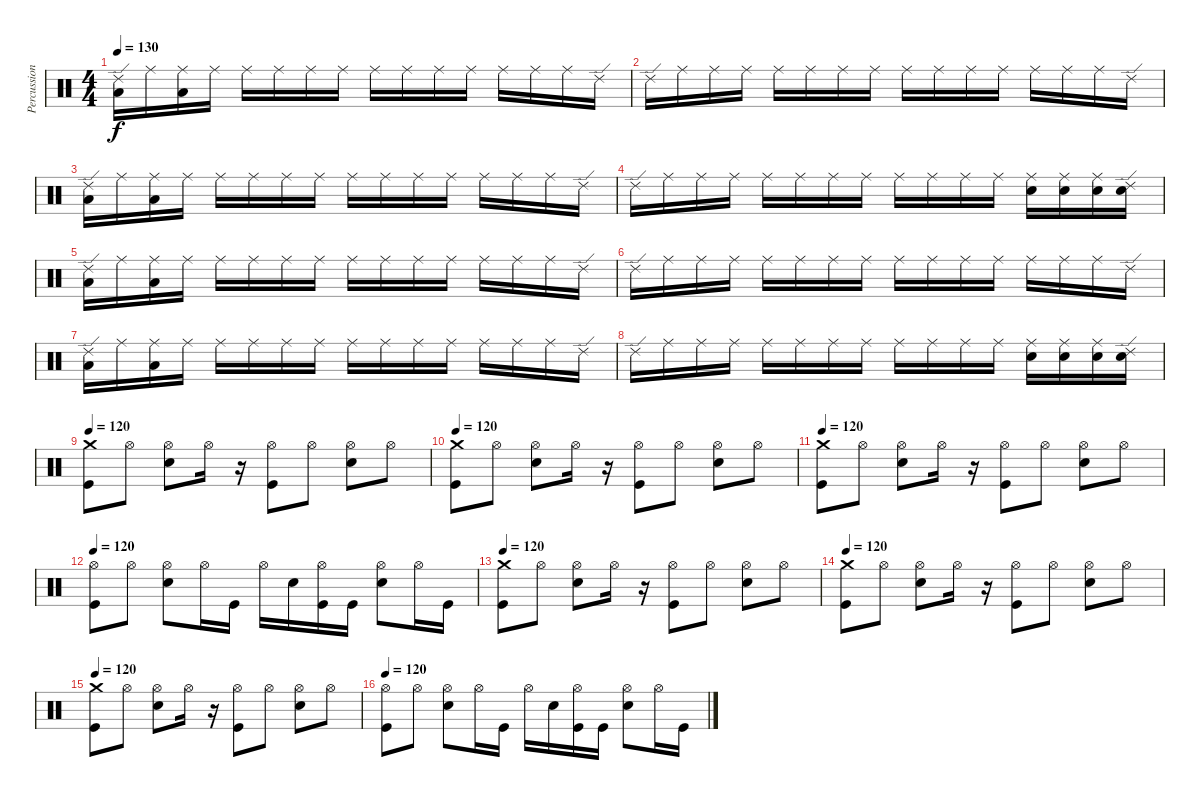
\track ("Percussion" "Percussion") {instrument percussion}
\staff {score}
\articulation defaults
\ts (4 4)
\tempo 130
\clef neutral
\ks c
("Low Floor Tom (hit)" "Ride (edge) 2").16{dy f} "Ride (middle)".16 ("Low Floor Tom (hit)" "Ride (middle)").16 "Ride (middle)".16 "Ride (middle)".16 "Ride (middle)".16 "Ride (middle)".16 "Ride (middle)".16 "Ride (middle)".16 "Ride (middle)".16 "Ride (middle)".16 "Ride (middle)".16 "Ride (middle)".16 "Ride (middle)".16 "Ride (middle)".16 "Ride (edge) 2".16 |
"Ride (edge) 2".16 "Ride (middle)".16 "Ride (middle)".16 "Ride (middle)".16 "Ride (middle)".16 "Ride (middle)".16 "Ride (middle)".16 "Ride (middle)".16 "Ride (middle)".16 "Ride (middle)".16 "Ride (middle)".16 "Ride (middle)".16 "Ride (middle)".16 "Ride (middle)".16 "Ride (middle)".16 "Ride (edge) 2".16 |
("Low Floor Tom (hit)" "Ride (edge) 2").16 "Ride (middle)".16 ("Low Floor Tom (hit)" "Ride (middle)").16 "Ride (middle)".16 "Ride (middle)".16 "Ride (middle)".16 "Ride (middle)".16 "Ride (middle)".16 "Ride (middle)".16 "Ride (middle)".16 "Ride (middle)".16 "Ride (middle)".16 "Ride (middle)".16 "Ride (middle)".16 "Ride (middle)".16 "Ride (edge) 2".16 |
"Ride (edge) 2".16 "Ride (middle)".16 "Ride (middle)".16 "Ride (middle)".16 "Ride (middle)".16 "Ride (middle)".16 "Ride (middle)".16 "Ride (middle)".16 "Ride (middle)".16 "Ride (middle)".16 "Ride (middle)".16 "Ride (middle)".16 ("Electric Snare (hit)" "Ride (middle)").16 ("Electric Snare (hit)" "Ride (middle)").16 ("Electric Snare (hit)" "Ride (middle)").16 ("Electric Snare (hit)" "Ride (edge) 2").16 |
("Low Floor Tom (hit)" "Ride (edge) 2").16 "Ride (middle)".16 ("Low Floor Tom (hit)" "Ride (middle)").16 "Ride (middle)".16 "Ride (middle)".16 "Ride (middle)".16 "Ride (middle)".16 "Ride (middle)".16 "Ride (middle)".16 "Ride (middle)".16 "Ride (middle)".16 "Ride (middle)".16 "Ride (middle)".16 "Ride (middle)".16 "Ride (middle)".16 "Ride (edge) 2".16 |
"Ride (edge) 2".16 "Ride (middle)".16 "Ride (middle)".16 "Ride (middle)".16 "Ride (middle)".16 "Ride (middle)".16 "Ride (middle)".16 "Ride (middle)".16 "Ride (middle)".16 "Ride (middle)".16 "Ride (middle)".16 "Ride (middle)".16 "Ride (middle)".16 "Ride (middle)".16 "Ride (middle)".16 "Ride (edge) 2".16 |
("Low Floor Tom (hit)" "Ride (edge) 2").16 "Ride (middle)".16 ("Low Floor Tom (hit)" "Ride (middle)").16 "Ride (middle)".16 "Ride (middle)".16 "Ride (middle)".16 "Ride (middle)".16 "Ride (middle)".16 "Ride (middle)".16 "Ride (middle)".16 "Ride (middle)".16 "Ride (middle)".16 "Ride (middle)".16 "Ride (middle)".16 "Ride (middle)".16 "Ride (edge) 2".16 |
"Ride (edge) 2".16 "Ride (middle)".16 "Ride (middle)".16 "Ride (middle)".16 "Ride (middle)".16 "Ride (middle)".16 "Ride (middle)".16 "Ride (middle)".16 "Ride (middle)".16 "Ride (middle)".16 "Ride (middle)".16 "Ride (middle)".16 ("Electric Snare (hit)" "Ride (middle)").16 ("Electric Snare (hit)" "Ride (middle)").16 ("Electric Snare (hit)" "Ride (middle)").16 ("Electric Snare (hit)" "Ride (edge) 2").16 |
\tempo 120
("Kick (hit)" "Crash medium (hit)").8 "Hi-Hat (open)".8 ("Hi-Hat (open)" "Electric Snare (hit)").8 "Hi-Hat (open)".16 r.16 ("Kick (hit)" "Hi-Hat (open)").8 "Hi-Hat (open)".8 ("Hi-Hat (open)" "Electric Snare (hit)").8 "Hi-Hat (open)".8 |
\tempo 120
("Kick (hit)" "Crash medium (hit)").8 "Hi-Hat (open)".8 ("Hi-Hat (open)" "Electric Snare (hit)").8 "Hi-Hat (open)".16 r.16 ("Kick (hit)" "Hi-Hat (open)").8 "Hi-Hat (open)".8 ("Hi-Hat (open)" "Electric Snare (hit)").8 "Hi-Hat (open)".8 |
\tempo 120
("Kick (hit)" "Crash medium (hit)").8 "Hi-Hat (open)".8 ("Hi-Hat (open)" "Electric Snare (hit)").8 "Hi-Hat (open)".16 r.16 ("Kick (hit)" "Hi-Hat (open)").8 "Hi-Hat (open)".8 ("Hi-Hat (open)" "Electric Snare (hit)").8 "Hi-Hat (open)".8 |
\tempo 120
("Kick (hit)" "Hi-Hat (open)").8 "Hi-Hat (open)".8 ("Hi-Hat (open)" "Electric Snare (hit)").8 "Hi-Hat (open)".16 "Kick (hit)".16 "Hi-Hat (open)".16 "Electric Snare (hit)".16 ("Kick (hit)" "Hi-Hat (open)").16 "Kick (hit)".16 ("Hi-Hat (open)" "Electric Snare (hit)").8 "Hi-Hat (open)".16 "Kick (hit)".16 |
\tempo 120
("Kick (hit)" "Crash medium (hit)").8 "Hi-Hat (open)".8 ("Hi-Hat (open)" "Electric Snare (hit)").8 "Hi-Hat (open)".16 r.16 ("Kick (hit)" "Hi-Hat (open)").8 "Hi-Hat (open)".8 ("Hi-Hat (open)" "Electric Snare (hit)").8 "Hi-Hat (open)".8 |
\tempo 120
("Kick (hit)" "Crash medium (hit)").8 "Hi-Hat (open)".8 ("Hi-Hat (open)" "Electric Snare (hit)").8 "Hi-Hat (open)".16 r.16 ("Kick (hit)" "Hi-Hat (open)").8 "Hi-Hat (open)".8 ("Hi-Hat (open)" "Electric Snare (hit)").8 "Hi-Hat (open)".8 |
\tempo 120
("Kick (hit)" "Crash medium (hit)").8 "Hi-Hat (open)".8 ("Hi-Hat (open)" "Electric Snare (hit)").8 "Hi-Hat (open)".16 r.16 ("Kick (hit)" "Hi-Hat (open)").8 "Hi-Hat (open)".8 ("Hi-Hat (open)" "Electric Snare (hit)").8 "Hi-Hat (open)".8 |
\tempo 120
("Kick (hit)" "Hi-Hat (open)").8 "Hi-Hat (open)".8 ("Hi-Hat (open)" "Electric Snare (hit)").8 "Hi-Hat (open)".16 "Kick (hit)".16 "Hi-Hat (open)".16 "Electric Snare (hit)".16 ("Kick (hit)" "Hi-Hat (open)").16 "Kick (hit)".16 ("Hi-Hat (open)" "Electric Snare (hit)").8 "Hi-Hat (open)".16 "Kick (hit)".16
